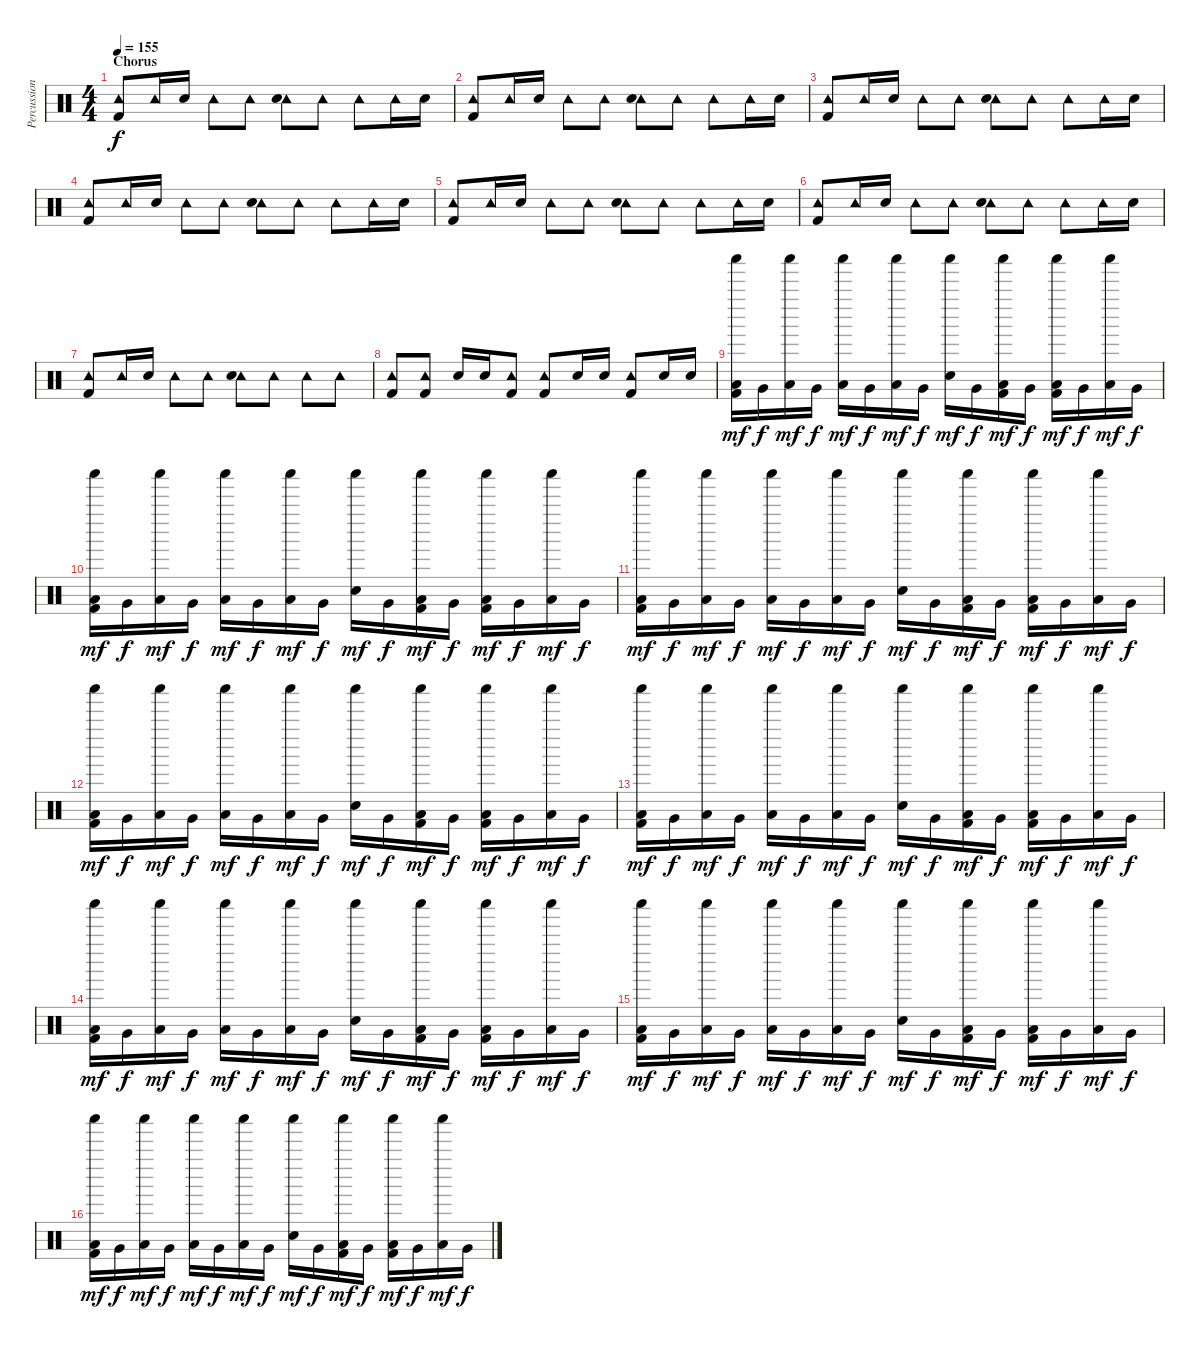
\track ("Percussion" "Percussion") {instrument percussion}
\staff {score}
\articulation defaults
\ts (4 4)
\section ("" "Chorus")
\tempo 155
\clef neutral
\ks c
("Tambourine (hit)" "Kick (hit) 2").8{dy f} "Tambourine (hit)".16 "Electric Snare (hit)".16 "Tambourine (hit)".8 "Tambourine (hit)".8 ("Tambourine (hit)" "Electric Snare (hit)").8 "Tambourine (hit)".8 "Tambourine (hit)".8 "Tambourine (hit)".16 "Electric Snare (hit)".16 |
("Tambourine (hit)" "Kick (hit) 2").8 "Tambourine (hit)".16 "Electric Snare (hit)".16 "Tambourine (hit)".8 "Tambourine (hit)".8 ("Tambourine (hit)" "Electric Snare (hit)").8 "Tambourine (hit)".8 "Tambourine (hit)".8 "Tambourine (hit)".16 "Electric Snare (hit)".16 |
("Tambourine (hit)" "Kick (hit) 2").8 "Tambourine (hit)".16 "Electric Snare (hit)".16 "Tambourine (hit)".8 "Tambourine (hit)".8 ("Tambourine (hit)" "Electric Snare (hit)").8 "Tambourine (hit)".8 "Tambourine (hit)".8 "Tambourine (hit)".16 "Electric Snare (hit)".16 |
("Tambourine (hit)" "Kick (hit) 2").8 "Tambourine (hit)".16 "Electric Snare (hit)".16 "Tambourine (hit)".8 "Tambourine (hit)".8 ("Tambourine (hit)" "Electric Snare (hit)").8 "Tambourine (hit)".8 "Tambourine (hit)".8 "Tambourine (hit)".16 "Electric Snare (hit)".16 |
("Tambourine (hit)" "Kick (hit) 2").8 "Tambourine (hit)".16 "Electric Snare (hit)".16 "Tambourine (hit)".8 "Tambourine (hit)".8 ("Tambourine (hit)" "Electric Snare (hit)").8 "Tambourine (hit)".8 "Tambourine (hit)".8 "Tambourine (hit)".16 "Electric Snare (hit)".16 |
("Tambourine (hit)" "Kick (hit) 2").8 "Tambourine (hit)".16 "Electric Snare (hit)".16 "Tambourine (hit)".8 "Tambourine (hit)".8 ("Tambourine (hit)" "Electric Snare (hit)").8 "Tambourine (hit)".8 "Tambourine (hit)".8 "Tambourine (hit)".16 "Electric Snare (hit)".16 |
("Tambourine (hit)" "Kick (hit) 2").8 "Tambourine (hit)".16 "Electric Snare (hit)".16 "Tambourine (hit)".8 "Tambourine (hit)".8 ("Tambourine (hit)" "Electric Snare (hit)").8 "Tambourine (hit)".8 "Tambourine (hit)".8 "Tambourine (hit)".8 |
("Tambourine (hit)" "Kick (hit) 2").8 ("Tambourine (hit)" "Kick (hit) 2").8 "Electric Snare (hit)".16 "Electric Snare (hit)".16 ("Tambourine (hit)" "Kick (hit) 2").8 ("Tambourine (hit)" "Kick (hit) 2").8 "Electric Snare (hit)".16 "Electric Snare (hit)".16 ("Tambourine (hit)" "Kick (hit) 2").8 "Electric Snare (hit)".16 "Electric Snare (hit)".16 |
("Shaker (hit)" "Low Floor Tom (hit)" "Kick (hit) 2").16{dy mf} "Very Low Tom (hit)".16{dy f} ("Shaker (hit)" "Low Floor Tom (hit)").16{dy mf} "Very Low Tom (hit)".16{dy f} ("Shaker (hit)" "Low Floor Tom (hit)").16{dy mf} "Very Low Tom (hit)".16{dy f} ("Shaker (hit)" "Low Floor Tom (hit)").16{dy mf} "Very Low Tom (hit)".16{dy f} ("Shaker (hit)" "Electric Snare (hit)").16{dy mf} "Very Low Tom (hit)".16{dy f} ("Shaker (hit)" "Low Floor Tom (hit)" "Kick (hit) 2").16{dy mf} "Very Low Tom (hit)".16{dy f} ("Shaker (hit)" "Low Floor Tom (hit)" "Kick (hit) 2").16{dy mf} "Very Low Tom (hit)".16{dy f} ("Shaker (hit)" "Low Floor Tom (hit)").16{dy mf} "Very Low Tom (hit)".16{dy f} |
("Shaker (hit)" "Low Floor Tom (hit)" "Kick (hit) 2").16{dy mf} "Very Low Tom (hit)".16{dy f} ("Shaker (hit)" "Low Floor Tom (hit)").16{dy mf} "Very Low Tom (hit)".16{dy f} ("Shaker (hit)" "Low Floor Tom (hit)").16{dy mf} "Very Low Tom (hit)".16{dy f} ("Shaker (hit)" "Low Floor Tom (hit)").16{dy mf} "Very Low Tom (hit)".16{dy f} ("Shaker (hit)" "Electric Snare (hit)").16{dy mf} "Very Low Tom (hit)".16{dy f} ("Shaker (hit)" "Low Floor Tom (hit)" "Kick (hit) 2").16{dy mf} "Very Low Tom (hit)".16{dy f} ("Shaker (hit)" "Low Floor Tom (hit)" "Kick (hit) 2").16{dy mf} "Very Low Tom (hit)".16{dy f} ("Shaker (hit)" "Low Floor Tom (hit)").16{dy mf} "Very Low Tom (hit)".16{dy f} |
("Shaker (hit)" "Low Floor Tom (hit)" "Kick (hit) 2").16{dy mf} "Very Low Tom (hit)".16{dy f} ("Shaker (hit)" "Low Floor Tom (hit)").16{dy mf} "Very Low Tom (hit)".16{dy f} ("Shaker (hit)" "Low Floor Tom (hit)").16{dy mf} "Very Low Tom (hit)".16{dy f} ("Shaker (hit)" "Low Floor Tom (hit)").16{dy mf} "Very Low Tom (hit)".16{dy f} ("Shaker (hit)" "Electric Snare (hit)").16{dy mf} "Very Low Tom (hit)".16{dy f} ("Shaker (hit)" "Low Floor Tom (hit)" "Kick (hit) 2").16{dy mf} "Very Low Tom (hit)".16{dy f} ("Shaker (hit)" "Low Floor Tom (hit)" "Kick (hit) 2").16{dy mf} "Very Low Tom (hit)".16{dy f} ("Shaker (hit)" "Low Floor Tom (hit)").16{dy mf} "Very Low Tom (hit)".16{dy f} |
("Shaker (hit)" "Low Floor Tom (hit)" "Kick (hit) 2").16{dy mf} "Very Low Tom (hit)".16{dy f} ("Shaker (hit)" "Low Floor Tom (hit)").16{dy mf} "Very Low Tom (hit)".16{dy f} ("Shaker (hit)" "Low Floor Tom (hit)").16{dy mf} "Very Low Tom (hit)".16{dy f} ("Shaker (hit)" "Low Floor Tom (hit)").16{dy mf} "Very Low Tom (hit)".16{dy f} ("Shaker (hit)" "Electric Snare (hit)").16{dy mf} "Very Low Tom (hit)".16{dy f} ("Shaker (hit)" "Low Floor Tom (hit)" "Kick (hit) 2").16{dy mf} "Very Low Tom (hit)".16{dy f} ("Shaker (hit)" "Low Floor Tom (hit)" "Kick (hit) 2").16{dy mf} "Very Low Tom (hit)".16{dy f} ("Shaker (hit)" "Low Floor Tom (hit)").16{dy mf} "Very Low Tom (hit)".16{dy f} |
("Shaker (hit)" "Low Floor Tom (hit)" "Kick (hit) 2").16{dy mf} "Very Low Tom (hit)".16{dy f} ("Shaker (hit)" "Low Floor Tom (hit)").16{dy mf} "Very Low Tom (hit)".16{dy f} ("Shaker (hit)" "Low Floor Tom (hit)").16{dy mf} "Very Low Tom (hit)".16{dy f} ("Shaker (hit)" "Low Floor Tom (hit)").16{dy mf} "Very Low Tom (hit)".16{dy f} ("Shaker (hit)" "Electric Snare (hit)").16{dy mf} "Very Low Tom (hit)".16{dy f} ("Shaker (hit)" "Low Floor Tom (hit)" "Kick (hit) 2").16{dy mf} "Very Low Tom (hit)".16{dy f} ("Shaker (hit)" "Low Floor Tom (hit)" "Kick (hit) 2").16{dy mf} "Very Low Tom (hit)".16{dy f} ("Shaker (hit)" "Low Floor Tom (hit)").16{dy mf} "Very Low Tom (hit)".16{dy f} |
("Shaker (hit)" "Low Floor Tom (hit)" "Kick (hit) 2").16{dy mf} "Very Low Tom (hit)".16{dy f} ("Shaker (hit)" "Low Floor Tom (hit)").16{dy mf} "Very Low Tom (hit)".16{dy f} ("Shaker (hit)" "Low Floor Tom (hit)").16{dy mf} "Very Low Tom (hit)".16{dy f} ("Shaker (hit)" "Low Floor Tom (hit)").16{dy mf} "Very Low Tom (hit)".16{dy f} ("Shaker (hit)" "Electric Snare (hit)").16{dy mf} "Very Low Tom (hit)".16{dy f} ("Shaker (hit)" "Low Floor Tom (hit)" "Kick (hit) 2").16{dy mf} "Very Low Tom (hit)".16{dy f} ("Shaker (hit)" "Low Floor Tom (hit)" "Kick (hit) 2").16{dy mf} "Very Low Tom (hit)".16{dy f} ("Shaker (hit)" "Low Floor Tom (hit)").16{dy mf} "Very Low Tom (hit)".16{dy f} |
("Shaker (hit)" "Low Floor Tom (hit)" "Kick (hit) 2").16{dy mf} "Very Low Tom (hit)".16{dy f} ("Shaker (hit)" "Low Floor Tom (hit)").16{dy mf} "Very Low Tom (hit)".16{dy f} ("Shaker (hit)" "Low Floor Tom (hit)").16{dy mf} "Very Low Tom (hit)".16{dy f} ("Shaker (hit)" "Low Floor Tom (hit)").16{dy mf} "Very Low Tom (hit)".16{dy f} ("Shaker (hit)" "Electric Snare (hit)").16{dy mf} "Very Low Tom (hit)".16{dy f} ("Shaker (hit)" "Low Floor Tom (hit)" "Kick (hit) 2").16{dy mf} "Very Low Tom (hit)".16{dy f} ("Shaker (hit)" "Low Floor Tom (hit)" "Kick (hit) 2").16{dy mf} "Very Low Tom (hit)".16{dy f} ("Shaker (hit)" "Low Floor Tom (hit)").16{dy mf} "Very Low Tom (hit)".16{dy f} |
("Shaker (hit)" "Low Floor Tom (hit)" "Kick (hit) 2").16{dy mf} "Very Low Tom (hit)".16{dy f} ("Shaker (hit)" "Low Floor Tom (hit)").16{dy mf} "Very Low Tom (hit)".16{dy f} ("Shaker (hit)" "Low Floor Tom (hit)").16{dy mf} "Very Low Tom (hit)".16{dy f} ("Shaker (hit)" "Low Floor Tom (hit)").16{dy mf} "Very Low Tom (hit)".16{dy f} ("Shaker (hit)" "Electric Snare (hit)").16{dy mf} "Very Low Tom (hit)".16{dy f} ("Shaker (hit)" "Low Floor Tom (hit)" "Kick (hit) 2").16{dy mf} "Very Low Tom (hit)".16{dy f} ("Shaker (hit)" "Low Floor Tom (hit)" "Kick (hit) 2").16{dy mf} "Very Low Tom (hit)".16{dy f} ("Shaker (hit)" "Low Floor Tom (hit)").16{dy mf} "Very Low Tom (hit)".16{dy f}
